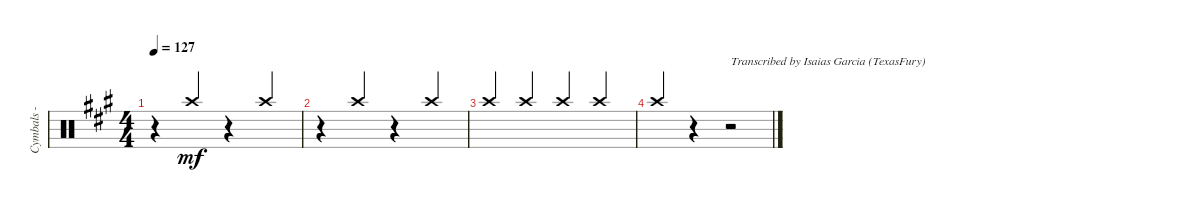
\track ("Cymbals - crash" "Cymbals - ") {instrument percussion}
\staff {score}
\articulation defaults
\ts (4 4)
\tempo 127
\clef neutral
\ks a
r.4{dy mf} "Crash high (hit)".4{beam Up} r.4 "Crash high (hit)".4{beam Up} |
r.4 "Crash high (hit)".4{beam Up} r.4 "Crash high (hit)".4{beam Up} |
"Crash high (hit)".4{beam Up} "Crash high (hit)".4{beam Up} "Crash high (hit)".4{beam Up} "Crash high (hit)".4{beam Up} |
"Crash high (hit)".4{beam Up} r.4 r.2{txt "Transcribed by Isaias Garcia (TexasFury)"}
